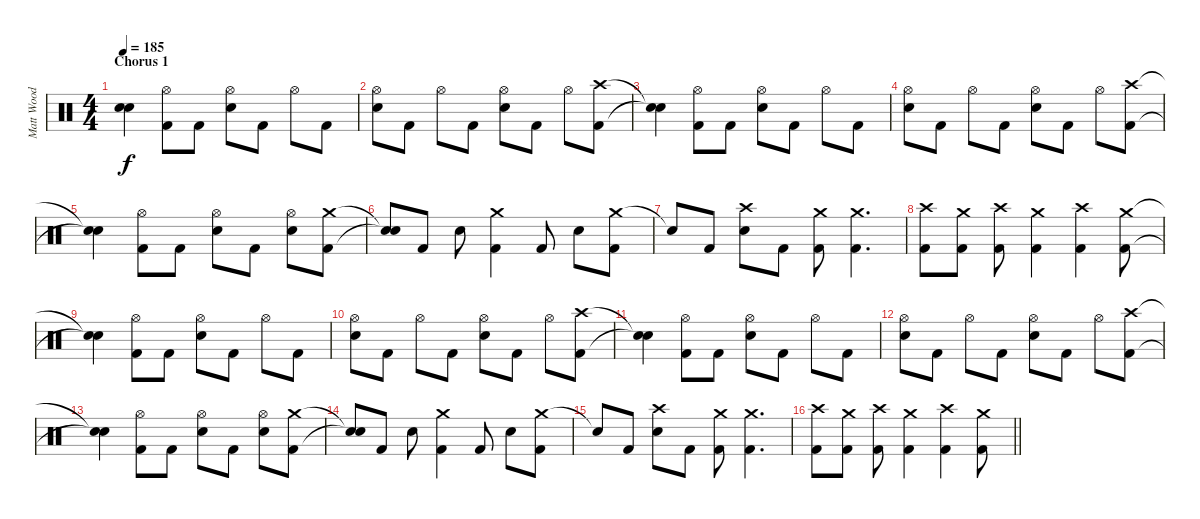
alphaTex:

\track ("Matt Wood" "Matt Wood") {instrument percussion}
\staff {score}
\articulation defaults
\ts (4 4)
\section ("" "Chorus 1")
\tempo 185
\clef neutral
\ks c
("Snare (hit)"{t} "Snare (hit)"{t}).4{dy f} ("Hi-Hat (open)" "Kick (hit) 2").8 "Kick (hit) 2".8 ("Hi-Hat (open)" "Snare (hit) 2").8 "Kick (hit) 2".8 "Hi-Hat (open)".8 "Kick (hit) 2".8 |
("Hi-Hat (open)" "Snare (hit) 2").8 "Kick (hit) 2".8 "Hi-Hat (open)".8 "Kick (hit) 2".8 ("Hi-Hat (open)" "Snare (hit) 2").8 "Kick (hit) 2".8 "Hi-Hat (open)".8 ("Crash high (hit)" "Kick (hit) 2").8 |
("Snare (hit)"{t} "Snare (hit)"{t}).4 ("Hi-Hat (open)" "Kick (hit) 2").8 "Kick (hit) 2".8 ("Hi-Hat (open)" "Snare (hit) 2").8 "Kick (hit) 2".8 "Hi-Hat (open)".8 "Kick (hit) 2".8 |
("Hi-Hat (open)" "Snare (hit) 2").8 "Kick (hit) 2".8 "Hi-Hat (open)".8 "Kick (hit) 2".8 ("Hi-Hat (open)" "Snare (hit) 2").8 "Kick (hit) 2".8 "Hi-Hat (open)".8 ("Crash high (hit)" "Kick (hit) 2").8 |
("Snare (hit)"{t} "Snare (hit)"{t}).4 ("Hi-Hat (open)" "Kick (hit) 2").8 "Kick (hit) 2".8 ("Hi-Hat (open)" "Snare (hit) 2").8 "Kick (hit) 2".8 ("Hi-Hat (open)" "Snare (hit) 2").8 ("Crash medium (hit)" "Kick (hit) 2").8 |
("Snare (hit)"{t} "Snare (hit)"{t}).8 "Kick (hit) 2".8 "Snare (hit) 2".8 ("Crash medium (hit)" "Kick (hit) 2").4 "Kick (hit) 2".8 "Snare (hit) 2".8 ("Crash medium (hit)" "Kick (hit) 2").8 |
"Snare (hit)"{t}.8 "Kick (hit) 2".8 ("Crash high (hit)" "Snare (hit) 2").8 "Kick (hit) 2".8 ("Crash medium (hit)" "Kick (hit) 2").8 ("Crash medium (hit)" "Kick (hit) 2").4{d} |
("Crash high (hit)" "Kick (hit) 2").8 ("Crash medium (hit)" "Kick (hit) 2").8 ("Crash high (hit)" "Kick (hit) 2").8 ("Crash medium (hit)" "Kick (hit) 2").4 ("Crash high (hit)" "Kick (hit) 2").4 ("Crash medium (hit)" "Kick (hit) 2").8 |
("Snare (hit)"{t} "Snare (hit)"{t}).4 ("Hi-Hat (open)" "Kick (hit) 2").8 "Kick (hit) 2".8 ("Hi-Hat (open)" "Snare (hit) 2").8 "Kick (hit) 2".8 "Hi-Hat (open)".8 "Kick (hit) 2".8 |
("Hi-Hat (open)" "Snare (hit) 2").8 "Kick (hit) 2".8 "Hi-Hat (open)".8 "Kick (hit) 2".8 ("Hi-Hat (open)" "Snare (hit) 2").8 "Kick (hit) 2".8 "Hi-Hat (open)".8 ("Crash high (hit)" "Kick (hit) 2").8 |
("Snare (hit)"{t} "Snare (hit)"{t}).4 ("Hi-Hat (open)" "Kick (hit) 2").8 "Kick (hit) 2".8 ("Hi-Hat (open)" "Snare (hit) 2").8 "Kick (hit) 2".8 "Hi-Hat (open)".8 "Kick (hit) 2".8 |
("Hi-Hat (open)" "Snare (hit) 2").8 "Kick (hit) 2".8 "Hi-Hat (open)".8 "Kick (hit) 2".8 ("Hi-Hat (open)" "Snare (hit) 2").8 "Kick (hit) 2".8 "Hi-Hat (open)".8 ("Crash high (hit)" "Kick (hit) 2").8 |
("Snare (hit)"{t} "Snare (hit)"{t}).4 ("Hi-Hat (open)" "Kick (hit) 2").8 "Kick (hit) 2".8 ("Hi-Hat (open)" "Snare (hit) 2").8 "Kick (hit) 2".8 ("Hi-Hat (open)" "Snare (hit) 2").8 ("Crash medium (hit)" "Kick (hit) 2").8 |
("Snare (hit)"{t} "Snare (hit)"{t}).8 "Kick (hit) 2".8 "Snare (hit) 2".8 ("Crash medium (hit)" "Kick (hit) 2").4 "Kick (hit) 2".8 "Snare (hit) 2".8 ("Crash medium (hit)" "Kick (hit) 2").8 |
"Snare (hit)"{t}.8 "Kick (hit) 2".8 ("Crash high (hit)" "Snare (hit) 2").8 "Kick (hit) 2".8 ("Crash medium (hit)" "Kick (hit) 2").8 ("Crash medium (hit)" "Kick (hit) 2").4{d} |
\barLineRight lightlight
("Crash high (hit)" "Kick (hit) 2").8 ("Crash medium (hit)" "Kick (hit) 2").8 ("Crash high (hit)" "Kick (hit) 2").8 ("Crash medium (hit)" "Kick (hit) 2").4 ("Crash high (hit)" "Kick (hit) 2").4 ("Crash medium (hit)" "Kick (hit) 2").8
